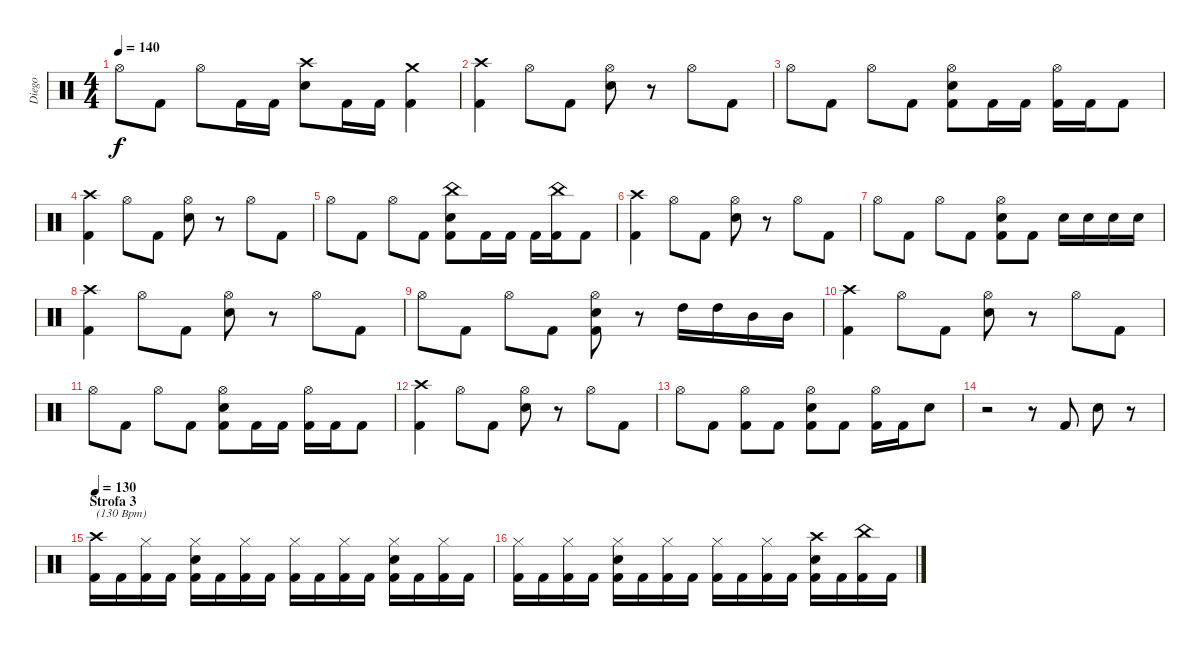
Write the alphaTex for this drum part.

\track ("Diego" "Diego") {instrument percussion}
\staff {score}
\articulation defaults
\ts (4 4)
\tempo 140
\clef neutral
\ks c "Hi-Hat (open)".8{dy f} "Kick (hit) 2".8 "Hi-Hat (open)".8 "Kick (hit) 2".16 "Kick (hit) 2".16
("Crash high (hit)" "Snare (hit) 2").8 "Kick (hit) 2".16 "Kick (hit) 2".16 ("Crash medium (hit)" "Kick (hit) 2").4 |
("Crash high (hit)" "Kick (hit) 2").4 "Hi-Hat (open)".8 "Kick (hit) 2".8 ("Hi-Hat (open)" "Snare (hit) 2").8 r.8 "Hi-Hat (open)".8 "Kick (hit) 2".8 |
"Hi-Hat (open)".8 "Kick (hit) 2".8 "Hi-Hat (open)".8 "Kick (hit) 2".8 ("Hi-Hat (open)" "Snare (hit) 2" "Kick (hit) 2").8 "Kick (hit) 2".16 "Kick (hit) 2".16 ("Hi-Hat (open)" "Kick (hit) 2").16 "Kick (hit) 2".16 "Kick (hit) 2".8 |
("Crash high (hit)" "Kick (hit) 2").4 "Hi-Hat (open)".8 "Kick (hit) 2".8 ("Hi-Hat (open)" "Snare (hit) 2").8 r.8 "Hi-Hat (open)".8 "Kick (hit) 2".8 |
"Hi-Hat (open)".8 "Kick (hit) 2".8 "Hi-Hat (open)".8 "Kick (hit) 2".8 ("China (hit)" "Snare (hit) 2" "Kick (hit) 2").8 "Kick (hit) 2".16 "Kick (hit) 2".16 "Kick (hit) 2".16 ("China (hit)" "Kick (hit) 2").16 "Kick (hit) 2".8 |
("Crash high (hit)" "Kick (hit) 2").4 "Hi-Hat (open)".8 "Kick (hit) 2".8 ("Hi-Hat (open)" "Snare (hit) 2").8 r.8 "Hi-Hat (open)".8 "Kick (hit) 2".8 |
"Hi-Hat (open)".8 "Kick (hit) 2".8 "Hi-Hat (open)".8 "Kick (hit) 2".8 ("Hi-Hat (open)" "Snare (hit) 2" "Kick (hit) 2").8 "Kick (hit) 2".8 "Snare (hit) 2".16 "Snare (hit) 2".16 "Snare (hit) 2".16 "Snare (hit) 2".16 |
("Crash high (hit)" "Kick (hit) 2").4 "Hi-Hat (open)".8 "Kick (hit) 2".8 ("Hi-Hat (open)" "Snare (hit) 2").8 r.8 "Hi-Hat (open)".8 "Kick (hit) 2".8 |
"Hi-Hat (open)".8 "Kick (hit) 2".8 "Hi-Hat (open)".8 "Kick (hit) 2".8 ("Hi-Hat (open)" "Snare (hit) 2" "Kick (hit) 2").8 r.8 "High Tom (hit)".16 "High Tom (hit)".16 "Mid Tom (hit)".16 "Mid Tom (hit)".16 |
("Crash high (hit)" "Kick (hit) 2").4 "Hi-Hat (open)".8 "Kick (hit) 2".8 ("Hi-Hat (open)" "Snare (hit) 2").8 r.8 "Hi-Hat (open)".8 "Kick (hit) 2".8 |
"Hi-Hat (open)".8 "Kick (hit) 2".8 "Hi-Hat (open)".8 "Kick (hit) 2".8 ("Hi-Hat (open)" "Snare (hit) 2" "Kick (hit) 2").8 "Kick (hit) 2".16 "Kick (hit) 2".16 ("Hi-Hat (open)" "Kick (hit) 2").16 "Kick (hit) 2".16 "Kick (hit) 2".8 |
("Crash high (hit)" "Kick (hit) 2").4 "Hi-Hat (open)".8 "Kick (hit) 2".8 ("Hi-Hat (open)" "Snare (hit) 2").8 r.8 "Hi-Hat (open)".8 "Kick (hit) 2".8 |
"Hi-Hat (open)".8 "Kick (hit) 2".8 ("Hi-Hat (open)" "Kick (hit) 2").8 "Kick (hit) 2".8 ("Hi-Hat (open)" "Snare (hit) 2" "Kick (hit) 2").8 "Kick (hit) 2".8 ("Hi-Hat (open)" "Kick (hit) 2").16 "Kick (hit) 2".16 "Electric Snare (hit)".8 |
r.2 r.8 "Kick (hit) 2".8 "Snare (hit) 2".8 r.8 |
\section ("" "Strofa 3")
\tempo 130
("Crash high (hit)" "Kick (hit) 2").16{txt "(130 Bpm)"} "Kick (hit) 2".16 ("Hi-Hat (closed)" "Kick (hit) 2").16 "Kick (hit) 2".16 ("Hi-Hat (closed)" "Snare (hit) 2" "Kick (hit) 2").16 "Kick (hit) 2".16 ("Hi-Hat (closed)" "Kick (hit) 2").16 "Kick (hit) 2".16 ("Hi-Hat (closed)" "Kick (hit) 2").16 "Kick (hit) 2".16 ("Hi-Hat (closed)" "Kick (hit) 2").16 "Kick (hit) 2".16 ("Hi-Hat (closed)" "Snare (hit) 2" "Kick (hit) 2").16 "Kick (hit) 2".16 ("Hi-Hat (closed)" "Kick (hit) 2").16 "Kick (hit) 2".16 |
("Hi-Hat (closed)" "Kick (hit) 2").16 "Kick (hit) 2".16 ("Hi-Hat (closed)" "Kick (hit) 2").16 "Kick (hit) 2".16 ("Hi-Hat (closed)" "Snare (hit) 2" "Kick (hit) 2").16 "Kick (hit) 2".16 ("Hi-Hat (closed)" "Kick (hit) 2").16 "Kick (hit) 2".16 ("Hi-Hat (closed)" "Kick (hit) 2").16 "Kick (hit) 2".16 ("Hi-Hat (closed)" "Kick (hit) 2").16 "Kick (hit) 2".16 ("Crash high (hit)" "Snare (hit) 2" "Kick (hit) 2").16 "Kick (hit) 2".16 ("China (hit)" "Kick (hit) 2").16 "Kick (hit) 2".16
